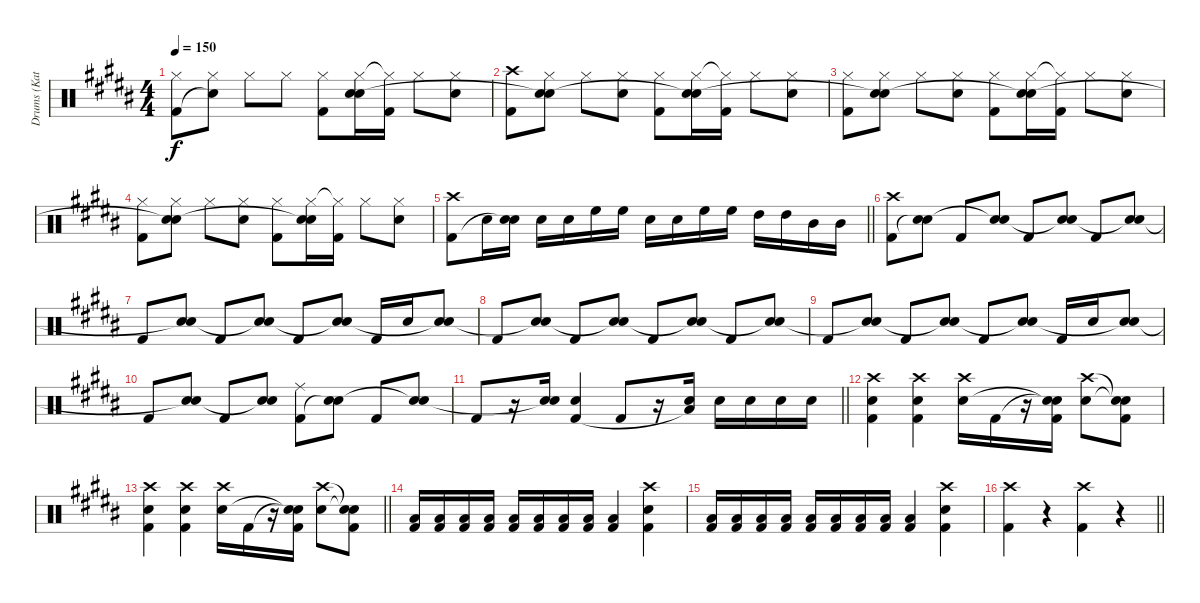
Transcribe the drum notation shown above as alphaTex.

\track ("Drums (Katsuji)" "Drums (Kat") {instrument percussion}
\staff {score}
\articulation defaults
\ts (4 4)
\tempo 150
\clef neutral
\ks b
("Hi-Hat (closed)" "Kick (hit) 2").8{dy f} ("Hi-Hat (closed)" "Snare (hit)"{t}).8 "Hi-Hat (closed)".8 "Hi-Hat (closed)".8 ("Hi-Hat (closed)" "Kick (hit) 2").8 ("Hi-Hat (closed)" "Snare (hit) 2" "Snare (hit)"{t}).16 ("Hi-Hat (closed)"{t} "Kick (hit) 2").16 "Hi-Hat (closed)".8 ("Hi-Hat (closed)" "Snare (hit) 2").8 |
("Crash high (hit)" "Kick (hit) 2").8 ("Hi-Hat (closed)" "Snare (hit) 2" "Snare (hit)"{t}).8 "Hi-Hat (closed)".8 ("Hi-Hat (closed)" "Snare (hit) 2").8 ("Hi-Hat (closed)" "Kick (hit) 2").8 ("Hi-Hat (closed)" "Snare (hit) 2" "Snare (hit)"{t}).16 ("Hi-Hat (closed)"{t} "Kick (hit) 2").16 "Hi-Hat (closed)".8 ("Hi-Hat (closed)" "Snare (hit) 2").8 |
("Hi-Hat (closed)" "Kick (hit) 2").8 ("Hi-Hat (closed)" "Snare (hit) 2" "Snare (hit)"{t}).8 "Hi-Hat (closed)".8 ("Hi-Hat (closed)" "Snare (hit) 2").8 ("Hi-Hat (closed)" "Kick (hit) 2").8 ("Hi-Hat (closed)" "Snare (hit) 2" "Snare (hit)"{t}).16 ("Hi-Hat (closed)"{t} "Kick (hit) 2").16 "Hi-Hat (closed)".8 ("Hi-Hat (closed)" "Snare (hit) 2").8 |
("Hi-Hat (closed)" "Kick (hit) 2").8 ("Hi-Hat (closed)" "Snare (hit) 2" "Snare (hit)"{t}).8 "Hi-Hat (closed)".8 ("Hi-Hat (closed)" "Snare (hit) 2").8 ("Hi-Hat (closed)" "Kick (hit) 2").8 ("Hi-Hat (closed)" "Snare (hit) 2" "Snare (hit)"{t}).16 ("Hi-Hat (closed)"{t} "Kick (hit) 2").16 "Hi-Hat (closed)".8 ("Hi-Hat (closed)" "Snare (hit) 2").8 |
\barLineRight lightlight
("Crash high (hit)" "Kick (hit) 2").8 "Snare (hit) 2".16 ("Snare (hit) 2" "Snare (hit)"{t}).16 "Snare (hit) 2".16 "Snare (hit) 2".16 "High Floor Tom (hit)".16 "High Floor Tom (hit)".16 "Snare (hit) 2".16 "Snare (hit) 2".16 "High Floor Tom (hit)".16 "High Floor Tom (hit)".16 "High Tom (hit)".16 "High Tom (hit)".16 "Mid Tom (hit)".16 "Mid Tom (hit)".16 |
("Crash high (hit)" "Kick (hit) 2").8 ("Snare (hit) 2" "Snare (hit)"{t}).8 "Kick (hit) 2".8 ("Snare (hit) 2" "Snare (hit)"{t}).8 "Kick (hit) 2".8 ("Snare (hit) 2" "Snare (hit)"{t}).8 "Kick (hit) 2".8 ("Snare (hit) 2" "Snare (hit)"{t}).8 |
"Kick (hit) 2".8 ("Snare (hit) 2" "Snare (hit)"{t}).8 "Kick (hit) 2".8 ("Snare (hit) 2" "Snare (hit)"{t}).8 "Kick (hit) 2".8 ("Snare (hit) 2" "Snare (hit)"{t}).8 "Kick (hit) 2".16 "Snare (hit) 2".16 ("Snare (hit) 2" "Snare (hit)"{t}).8 |
"Kick (hit) 2".8 ("Snare (hit) 2" "Snare (hit)"{t}).8 "Kick (hit) 2".8 ("Snare (hit) 2" "Snare (hit)"{t}).8 "Kick (hit) 2".8 ("Snare (hit) 2" "Snare (hit)"{t}).8 "Kick (hit) 2".8 ("Snare (hit) 2" "Snare (hit)"{t}).8 |
"Kick (hit) 2".8 ("Snare (hit) 2" "Snare (hit)"{t}).8 "Kick (hit) 2".8 ("Snare (hit) 2" "Snare (hit)"{t}).8 "Kick (hit) 2".8 ("Snare (hit) 2" "Snare (hit)"{t}).8 "Kick (hit) 2".16 "Snare (hit) 2".16 ("Snare (hit) 2" "Snare (hit)"{t}).8 |
"Kick (hit) 2".8 ("Snare (hit) 2" "Snare (hit)"{t}).8 "Kick (hit) 2".8 ("Snare (hit) 2" "Snare (hit)"{t}).8 ("Ride (middle)" "Kick (hit) 2").8 ("Snare (hit) 2" "Snare (hit)"{t}).8 "Kick (hit) 2".8 ("Snare (hit) 2" "Snare (hit)"{t}).8 |
\barLineRight lightlight "Kick (hit) 2".8
r.16 ("Snare (hit) 2" "Snare (hit)"{t}).16 ("Snare (hit) 2" "Kick (hit) 2").4 "Kick (hit) 2".8 r.16 ("Snare (hit) 2" "Low Floor Tom (hit)"{t}).16 "Snare (hit) 2".16 "Snare (hit) 2".16 "Snare (hit) 2".16 "Snare (hit) 2".16 |
("Crash high (hit)" "Snare (hit) 2" "Kick (hit) 2").4 ("Crash high (hit)" "Snare (hit) 2" "Kick (hit) 2").4 ("Crash high (hit)" "Snare (hit) 2").16 "Kick (hit) 2".16 r.16 ("Snare (hit)"{t} "Snare (hit)"{t} "Kick (hit) 2").16 ("Crash high (hit)" "Snare (hit) 2").8 ("Snare (hit)"{t} "Snare (hit)"{t} "Kick (hit) 2").8 |
\barLineRight lightlight
("Crash high (hit)" "Snare (hit) 2" "Kick (hit) 2").4 ("Crash high (hit)" "Snare (hit) 2" "Kick (hit) 2").4 ("Crash high (hit)" "Snare (hit) 2").16 "Kick (hit) 2".16 r.16 ("Snare (hit)"{t} "Snare (hit)"{t} "Kick (hit) 2").16 ("Crash high (hit)" "Snare (hit) 2").8 ("Snare (hit)"{t} "Snare (hit)"{t} "Kick (hit) 2").8 |
("Low Tom (hit)" "Kick (hit) 2").16 ("Low Tom (hit)" "Kick (hit) 2").16 ("Low Tom (hit)" "Kick (hit) 2").16 ("Low Tom (hit)" "Kick (hit) 2").16 ("Low Tom (hit)" "Kick (hit) 2").16 ("Low Tom (hit)" "Kick (hit) 2").16 ("Low Tom (hit)" "Kick (hit) 2").16 ("Low Tom (hit)" "Kick (hit) 2").16 ("Low Tom (hit)" "Kick (hit) 2").4 ("Crash high (hit)" "Snare (hit) 2" "Kick (hit) 2").4 |
("Low Tom (hit)" "Kick (hit) 2").16 ("Low Tom (hit)" "Kick (hit) 2").16 ("Low Tom (hit)" "Kick (hit) 2").16 ("Low Tom (hit)" "Kick (hit) 2").16 ("Low Tom (hit)" "Kick (hit) 2").16 ("Low Tom (hit)" "Kick (hit) 2").16 ("Low Tom (hit)" "Kick (hit) 2").16 ("Low Tom (hit)" "Kick (hit) 2").16 ("Low Tom (hit)" "Kick (hit) 2").4 ("Crash high (hit)" "Snare (hit) 2" "Kick (hit) 2").4 |
\barLineRight lightlight
("Crash high (hit)" "Kick (hit) 2").4 r.4 ("Crash high (hit)" "Kick (hit) 2").4 r.4
